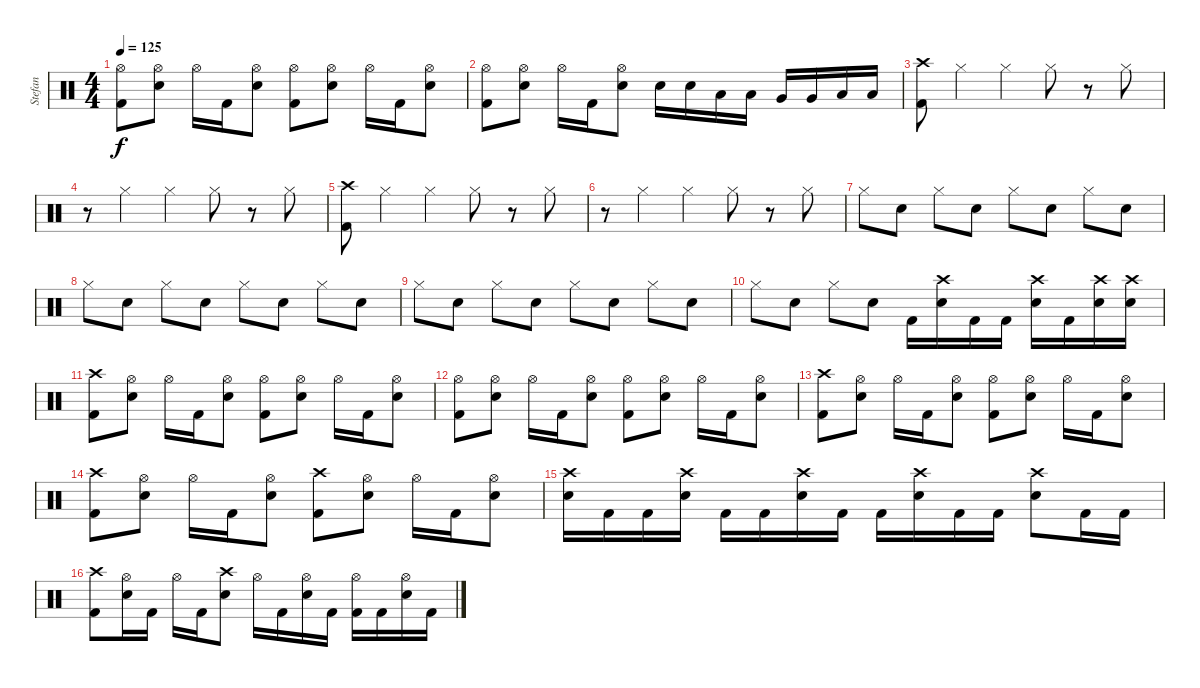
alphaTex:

\track ("Stefan" "Stefan") {instrument percussion}
\staff {score}
\articulation defaults
\ts (4 4)
\tempo 125
\clef neutral
\ks c
("Hi-Hat (open)" "Kick (hit) 2").8{dy f} ("Hi-Hat (open)" "Electric Snare (hit)").8 "Hi-Hat (open)".16 "Kick (hit) 2".16 ("Hi-Hat (open)" "Electric Snare (hit)").8 ("Hi-Hat (open)" "Kick (hit) 2").8 ("Hi-Hat (open)" "Electric Snare (hit)").8 "Hi-Hat (open)".16 "Kick (hit) 2".16 ("Hi-Hat (open)" "Electric Snare (hit)").8 |
("Hi-Hat (open)" "Kick (hit) 2").8 ("Hi-Hat (open)" "Electric Snare (hit)").8 "Hi-Hat (open)".16 "Kick (hit) 2".16 ("Hi-Hat (open)" "Electric Snare (hit)").8 "Electric Snare (hit)".16 "Electric Snare (hit)".16 "Low Tom (hit)".16 "Low Tom (hit)".16 "Very Low Tom (hit)".16 "Very Low Tom (hit)".16 "Low Floor Tom (hit)".16 "Low Floor Tom (hit)".16 |
("Crash high (hit)" "Kick (hit) 2").8 "Hi-Hat (closed)".4 "Hi-Hat (closed)".4 "Hi-Hat (closed)".8 r.8 "Hi-Hat (closed)".8 |
r.8 "Hi-Hat (closed)".4 "Hi-Hat (closed)".4 "Hi-Hat (closed)".8 r.8 "Hi-Hat (closed)".8 |
("Crash high (hit)" "Kick (hit) 2").8 "Hi-Hat (closed)".4 "Hi-Hat (closed)".4 "Hi-Hat (closed)".8 r.8 "Hi-Hat (closed)".8 |
r.8 "Hi-Hat (closed)".4 "Hi-Hat (closed)".4 "Hi-Hat (closed)".8 r.8 "Hi-Hat (closed)".8 |
"Hi-Hat (closed)".8 "Electric Snare (hit)".8 "Hi-Hat (closed)".8 "Electric Snare (hit)".8 "Hi-Hat (closed)".8 "Electric Snare (hit)".8 "Hi-Hat (closed)".8 "Electric Snare (hit)".8 |
"Hi-Hat (closed)".8 "Electric Snare (hit)".8 "Hi-Hat (closed)".8 "Electric Snare (hit)".8 "Hi-Hat (closed)".8 "Electric Snare (hit)".8 "Hi-Hat (closed)".8 "Electric Snare (hit)".8 |
"Hi-Hat (closed)".8 "Electric Snare (hit)".8 "Hi-Hat (closed)".8 "Electric Snare (hit)".8 "Hi-Hat (closed)".8 "Electric Snare (hit)".8 "Hi-Hat (closed)".8 "Electric Snare (hit)".8 |
"Hi-Hat (closed)".8 "Electric Snare (hit)".8 "Hi-Hat (closed)".8 "Electric Snare (hit)".8 "Kick (hit) 2".16 ("Crash high (hit)" "Electric Snare (hit)").16 "Kick (hit) 2".16 "Kick (hit) 2".16 ("Crash high (hit)" "Electric Snare (hit)").16 "Kick (hit) 2".16 ("Crash high (hit)" "Electric Snare (hit)").16 ("Crash high (hit)" "Electric Snare (hit)").16 |
("Crash high (hit)" "Kick (hit) 2").8 ("Hi-Hat (open)" "Electric Snare (hit)").8 "Hi-Hat (open)".16 "Kick (hit) 2".16 ("Hi-Hat (open)" "Electric Snare (hit)").8 ("Hi-Hat (open)" "Kick (hit) 2").8 ("Hi-Hat (open)" "Electric Snare (hit)").8 "Hi-Hat (open)".16 "Kick (hit) 2".16 ("Hi-Hat (open)" "Electric Snare (hit)").8 |
("Hi-Hat (open)" "Kick (hit) 2").8 ("Hi-Hat (open)" "Electric Snare (hit)").8 "Hi-Hat (open)".16 "Kick (hit) 2".16 ("Hi-Hat (open)" "Electric Snare (hit)").8 ("Hi-Hat (open)" "Kick (hit) 2").8 ("Hi-Hat (open)" "Electric Snare (hit)").8 "Hi-Hat (open)".16 "Kick (hit) 2".16 ("Hi-Hat (open)" "Electric Snare (hit)").8 |
("Crash high (hit)" "Kick (hit) 2").8 ("Hi-Hat (open)" "Electric Snare (hit)").8 "Hi-Hat (open)".16 "Kick (hit) 2".16 ("Hi-Hat (open)" "Electric Snare (hit)").8 ("Hi-Hat (open)" "Kick (hit) 2").8 ("Hi-Hat (open)" "Electric Snare (hit)").8 "Hi-Hat (open)".16 "Kick (hit) 2".16 ("Hi-Hat (open)" "Electric Snare (hit)").8 |
("Crash high (hit)" "Kick (hit) 2").8 ("Hi-Hat (open)" "Electric Snare (hit)").8 "Hi-Hat (open)".16 "Kick (hit) 2".16 ("Hi-Hat (open)" "Electric Snare (hit)").8 ("Crash high (hit)" "Kick (hit) 2").8 ("Hi-Hat (open)" "Electric Snare (hit)").8 "Hi-Hat (open)".16 "Kick (hit) 2".16 ("Hi-Hat (open)" "Electric Snare (hit)").8 |
("Crash high (hit)" "Electric Snare (hit)").16 "Kick (hit) 2".16 "Kick (hit) 2".16 ("Crash high (hit)" "Electric Snare (hit)").16 "Kick (hit) 2".16 "Kick (hit) 2".16 ("Crash high (hit)" "Electric Snare (hit)").16 "Kick (hit) 2".16 "Kick (hit) 2".16 ("Crash high (hit)" "Electric Snare (hit)").16 "Kick (hit) 2".16 "Kick (hit) 2".16 ("Crash high (hit)" "Electric Snare (hit)").8 "Kick (hit) 2".16 "Kick (hit) 2".16 |
("Crash high (hit)" "Kick (hit) 2").8 ("Hi-Hat (open)" "Electric Snare (hit)").16 "Kick (hit) 2".16 "Hi-Hat (open)".16 "Kick (hit) 2".16 ("Crash high (hit)" "Electric Snare (hit)").8 "Hi-Hat (open)".16 "Kick (hit) 2".16 ("Hi-Hat (open)" "Electric Snare (hit)").16 "Kick (hit) 2".16 ("Hi-Hat (open)" "Kick (hit) 2").16 "Kick (hit) 2".16 ("Hi-Hat (open)" "Electric Snare (hit)").16 "Kick (hit) 2".16
